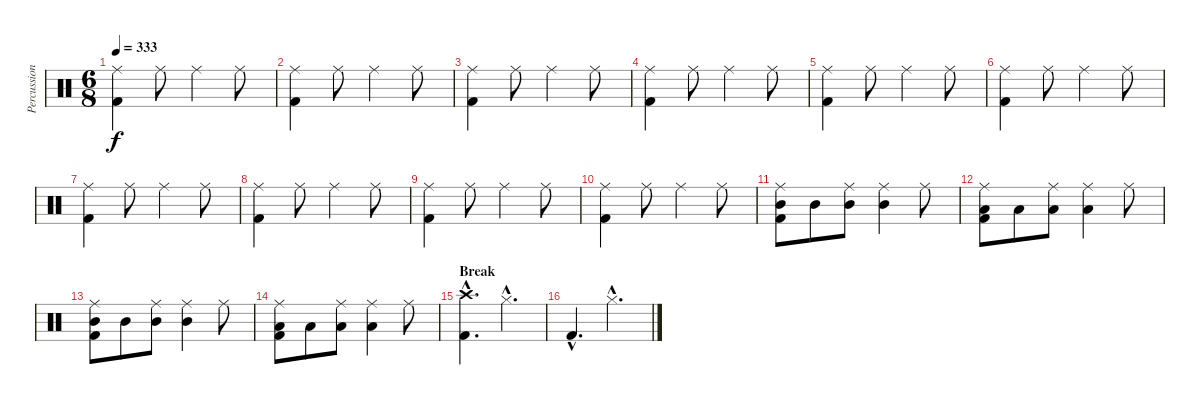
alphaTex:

\track ("Percussion" "Percussion") {instrument percussion}
\staff {score}
\articulation defaults
\ts (6 8)
\tempo 333
\clef neutral
\ks c
("Ride (middle)" "Kick (hit) 2").4{dy f} "Ride (middle)".8 "Ride (middle)".4 "Ride (middle)".8 |
("Ride (middle)" "Kick (hit) 2").4 "Ride (middle)".8 "Ride (middle)".4 "Ride (middle)".8 |
("Ride (middle)" "Kick (hit) 2").4 "Ride (middle)".8 "Ride (middle)".4 "Ride (middle)".8 |
("Ride (middle)" "Kick (hit) 2").4 "Ride (middle)".8 "Ride (middle)".4 "Ride (middle)".8 |
("Ride (middle)" "Kick (hit) 2").4 "Ride (middle)".8 "Ride (middle)".4 "Ride (middle)".8 |
("Ride (middle)" "Kick (hit) 2").4 "Ride (middle)".8 "Ride (middle)".4 "Ride (middle)".8 |
("Ride (middle)" "Kick (hit) 2").4 "Ride (middle)".8 "Ride (middle)".4 "Ride (middle)".8 |
("Ride (middle)" "Kick (hit) 2").4 "Ride (middle)".8 "Ride (middle)".4 "Ride (middle)".8 |
("Ride (middle)" "Kick (hit) 2").4 "Ride (middle)".8 "Ride (middle)".4 "Ride (middle)".8 |
("Ride (middle)" "Kick (hit) 2").4 "Ride (middle)".8 "Ride (middle)".4 "Ride (middle)".8 |
("Ride (middle)" "Mid Tom (hit)" "Kick (hit) 2").8 "Mid Tom (hit)".8 ("Ride (middle)" "Mid Tom (hit)").8 ("Ride (middle)" "Mid Tom (hit)").4 "Ride (middle)".8 |
("Ride (middle)" "Low Tom (hit)" "Kick (hit) 2").8 "Low Tom (hit)".8 ("Ride (middle)" "Low Tom (hit)").8 ("Ride (middle)" "Low Tom (hit)").4 "Ride (middle)".8 |
("Ride (middle)" "Mid Tom (hit)" "Kick (hit) 2").8 "Mid Tom (hit)".8 ("Ride (middle)" "Mid Tom (hit)").8 ("Ride (middle)" "Mid Tom (hit)").4 "Ride (middle)".8 |
("Ride (middle)" "Low Tom (hit)" "Kick (hit) 2").8 "Low Tom (hit)".8 ("Ride (middle)" "Low Tom (hit)").8 ("Ride (middle)" "Low Tom (hit)").4 "Ride (middle)".8 |
\section ("" "Break")
("Crash high (hit)"{hac} "Kick (hit) 2"{hac}).4{d} "Hi-Hat (closed)"{hac}.4{d} |
"Kick (hit) 2"{hac}.4{d} "Hi-Hat (closed)"{hac}.4{d}
